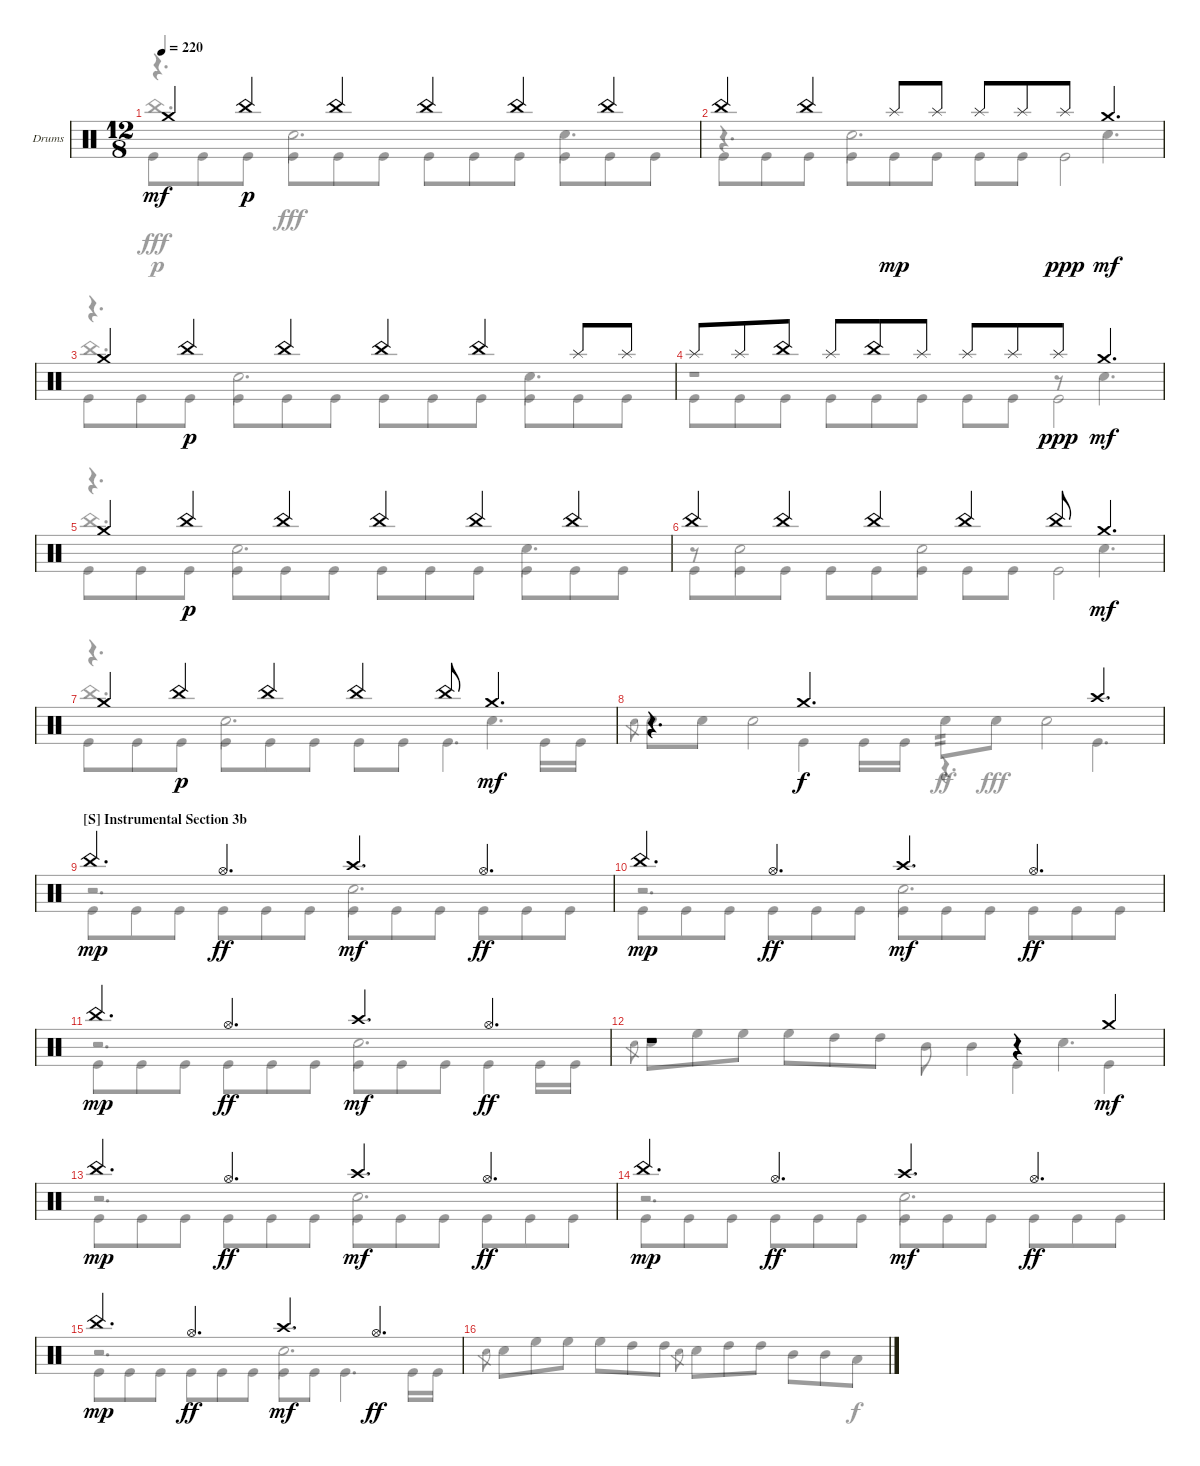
\defaultSystemsLayout 4
\bracketExtendMode groupsimilarinstruments
\firstSystemTrackNameOrientation horizontal
\otherSystemsTrackNameOrientation horizontal
\track ("Drumkit" "Drums") {instrument percussion}
\staff {score}
\articulation defaults
\voice
\ts (12 8)
\tempo 220
\clef neutral
\ks c "Crash medium (hit)".4{dy mf} "China (hit)".4{dy p} "China (hit)".4 "China (hit)".4 "China (hit)".4 "China (hit)".4
|
"China (hit)".4 "China (hit)".4 "Splash (hit)".8{dy mp} "Splash (hit)".8 "Splash (hit)".8 "Splash (hit)".8 "Splash (hit)".8{dy ppp} "Crash medium (hit)".4{d dy mf} |
"Crash medium (hit)".4 "China (hit)".4{dy p} "China (hit)".4 "China (hit)".4 "China (hit)".4 "Splash (hit)".8 "Splash (hit)".8 |
"Splash (hit)".8 "Splash (hit)".8 "China (hit)".8 "Splash (hit)".8 "China (hit)".8 "Splash (hit)".8 "Splash (hit)".8 "Splash (hit)".8 "Splash (hit)".8{dy ppp} "Crash medium (hit)".4{d dy mf} |
"Crash medium (hit)".4 "China (hit)".4{dy p} "China (hit)".4 "China (hit)".4 "China (hit)".4 "China (hit)".4 |
"China (hit)".4 "China (hit)".4 "China (hit)".4 "China (hit)".4 "China (hit)".8 "Crash medium (hit)".4{d dy mf} |
"Crash medium (hit)".4 "China (hit)".4{dy p} "China (hit)".4 "China (hit)".4 "China (hit)".8 "Crash medium (hit)".4{d dy mf} |
r.4{d} "Crash medium (hit)".2{d dy f} "Crash high (hit)".4{d} |
\section ("S" "Instrumental Section 3b")
"China (hit)".4{d dy mp} "Hi-Hat (open)".4{d dy ff} "Crash high (hit)".4{d dy mf} "Hi-Hat (open)".4{d dy ff} |
"China (hit)".4{d dy mp} "Hi-Hat (open)".4{d dy ff} "Crash high (hit)".4{d dy mf} "Hi-Hat (open)".4{d dy ff} |
"China (hit)".4{d dy mp} "Hi-Hat (open)".4{d dy ff} "Crash high (hit)".4{d dy mf} "Hi-Hat (open)".4{d dy ff} |
r.1 r.4 "Crash medium (hit)".4{dy mf} |
"China (hit)".4{d dy mp} "Hi-Hat (open)".4{d dy ff} "Crash high (hit)".4{d dy mf} "Hi-Hat (open)".4{d dy ff} |
"China (hit)".4{d dy mp} "Hi-Hat (open)".4{d dy ff} "Crash high (hit)".4{d dy mf} "Hi-Hat (open)".4{d dy ff} |
"China (hit)".4{d dy mp} "Hi-Hat (open)".4{d dy ff} "Crash high (hit)".4{d dy mf} "Hi-Hat (open)".4{d dy ff} |
\voice
\clef neutral
\ottava regular
\simile none
\ks c
r.4{d dy fff} "Snare (hit) 2".2{d} "Snare (hit) 2".4{d} |
r.4{d} "Snare (hit) 2".2{d} "Snare (hit) 2".4{d} |
r.4{d} "Snare (hit) 2".2{d} "Snare (hit) 2".4{d} |
r.1 r.8 "Snare (hit) 2".4{d} |
r.4{d} "Snare (hit) 2".2{d} "Snare (hit) 2".4{d} |
r.8 "Snare (hit) 2".2 "Snare (hit) 2".2 "Snare (hit) 2".4{d} |
r.4{d} "Snare (hit) 2".2{d} "Snare (hit) 2".4{d} |
"Snare (hit) 2".8{gr} "Snare (hit) 2".8 "Snare (hit) 2".8 "Snare (hit) 2".2 "Snare (hit) 2".8{tp 2 dy ff} "Snare (hit) 2".8{dy fff} "Snare (hit) 2".2 |
r.2{d} "Snare (hit) 2".2{d} |
r.2{d} "Snare (hit) 2".2{d} |
r.2{d} "Snare (hit) 2".2{d} |
"Snare (hit) 2".8{gr} "Snare (hit) 2".8 "High Floor Tom (hit)".8 "High Floor Tom (hit)".8 "High Floor Tom (hit)".8 "High Tom (hit)".8 "High Tom (hit)".8 "Mid Tom (hit)".8 "Mid Tom (hit)".4 "Snare (hit) 2".4{d} |
r.2{d} "Snare (hit) 2".2{d} |
r.2{d} "Snare (hit) 2".2{d} |
r.2{d} "Snare (hit) 2".2{d} |
"Snare (hit) 2".8{gr} "Snare (hit) 2".8 "High Floor Tom (hit)".8 "High Floor Tom (hit)".8 "High Floor Tom (hit)".8 "High Tom (hit)".8 "High Tom (hit)".8 "Snare (hit) 2".8{gr} "Snare (hit) 2".8 "High Tom (hit)".8 "High Tom (hit)".8 "Mid Tom (hit)".8 "Mid Tom (hit)".8 "Low Tom (hit)".8{dy f}
\voice
\clef neutral
\ottava regular
\simile none
\ks c "Kick (hit)".8{dy fff} "Kick (hit)".8 "Kick (hit)".8 "Kick (hit)".8 "Kick (hit)".8 "Kick (hit)".8 "Kick (hit)".8 "Kick (hit)".8 "Kick (hit)".8 "Kick (hit)".8 "Kick (hit)".8 "Kick (hit)".8
|
"Kick (hit)".8 "Kick (hit)".8 "Kick (hit)".8 "Kick (hit)".8 "Kick (hit)".8 "Kick (hit)".8 "Kick (hit)".8 "Kick (hit)".8 "Kick (hit)".2 |
"Kick (hit)".8 "Kick (hit)".8 "Kick (hit)".8 "Kick (hit)".8 "Kick (hit)".8 "Kick (hit)".8 "Kick (hit)".8 "Kick (hit)".8 "Kick (hit)".8 "Kick (hit)".8 "Kick (hit)".8 "Kick (hit)".8 |
"Kick (hit)".8 "Kick (hit)".8 "Kick (hit)".8 "Kick (hit)".8 "Kick (hit)".8 "Kick (hit)".8 "Kick (hit)".8 "Kick (hit)".8 "Kick (hit)".2 |
"Kick (hit)".8 "Kick (hit)".8 "Kick (hit)".8 "Kick (hit)".8 "Kick (hit)".8 "Kick (hit)".8 "Kick (hit)".8 "Kick (hit)".8 "Kick (hit)".8 "Kick (hit)".8 "Kick (hit)".8 "Kick (hit)".8 |
"Kick (hit)".8 "Kick (hit)".8 "Kick (hit)".8 "Kick (hit)".8 "Kick (hit)".8 "Kick (hit)".8 "Kick (hit)".8 "Kick (hit)".8 "Kick (hit)".2 |
"Kick (hit)".8 "Kick (hit)".8 "Kick (hit)".8 "Kick (hit)".8 "Kick (hit)".8 "Kick (hit)".8 "Kick (hit)".8 "Kick (hit)".8 "Kick (hit)".4{d} "Kick (hit)".16 "Kick (hit)".16 |
r.4{d} "Kick (hit)".4 "Kick (hit)".16 "Kick (hit)".16 r.4{d} "Kick (hit)".4{d} |
"Kick (hit)".8 "Kick (hit)".8 "Kick (hit)".8 "Kick (hit)".8 "Kick (hit)".8 "Kick (hit)".8 "Kick (hit)".8 "Kick (hit)".8 "Kick (hit)".8 "Kick (hit)".8 "Kick (hit)".8 "Kick (hit)".8 |
"Kick (hit)".8 "Kick (hit)".8 "Kick (hit)".8 "Kick (hit)".8 "Kick (hit)".8 "Kick (hit)".8 "Kick (hit)".8 "Kick (hit)".8 "Kick (hit)".8 "Kick (hit)".8 "Kick (hit)".8 "Kick (hit)".8 |
"Kick (hit)".8 "Kick (hit)".8 "Kick (hit)".8 "Kick (hit)".8 "Kick (hit)".8 "Kick (hit)".8 "Kick (hit)".8 "Kick (hit)".8 "Kick (hit)".8 "Kick (hit)".4 "Kick (hit)".16 "Kick (hit)".16 |
r.1 "Kick (hit)".4 "Kick (hit)".4 |
"Kick (hit)".8 "Kick (hit)".8 "Kick (hit)".8 "Kick (hit)".8 "Kick (hit)".8 "Kick (hit)".8 "Kick (hit)".8 "Kick (hit)".8 "Kick (hit)".8 "Kick (hit)".8 "Kick (hit)".8 "Kick (hit)".8 |
"Kick (hit)".8 "Kick (hit)".8 "Kick (hit)".8 "Kick (hit)".8 "Kick (hit)".8 "Kick (hit)".8 "Kick (hit)".8 "Kick (hit)".8 "Kick (hit)".8 "Kick (hit)".8 "Kick (hit)".8 "Kick (hit)".8 |
"Kick (hit)".8 "Kick (hit)".8 "Kick (hit)".8 "Kick (hit)".8 "Kick (hit)".8 "Kick (hit)".8 "Kick (hit)".8 "Kick (hit)".8 "Kick (hit)".4{d} "Kick (hit)".16 "Kick (hit)".16 |
\voice
\clef neutral
\ottava regular
\simile none
\ks c "China (hit)".1{d dy p}
|
|
"China (hit)".1{d} |
|
"China (hit)".1{d} |
|
"China (hit)".1{d} |
|
|
|
|
|
|
|
|
